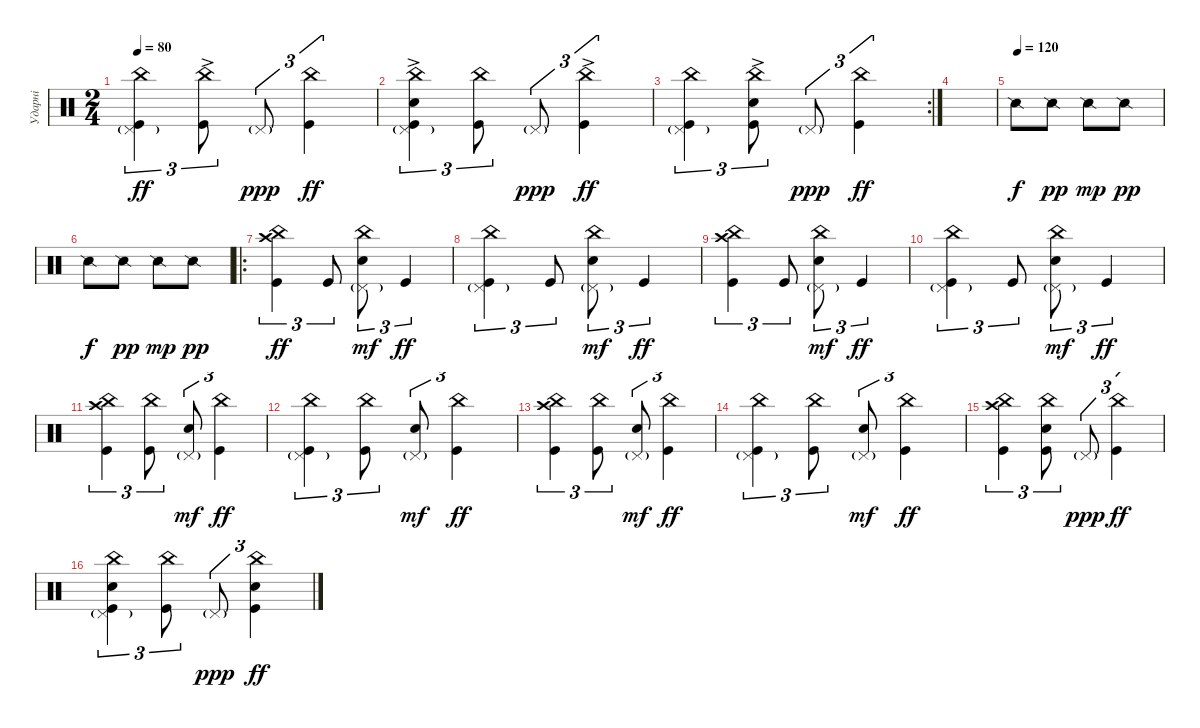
\track ("Ударні" "Ударні") {instrument percussion}
\staff {score}
\articulation defaults
\ts (2 4)
\tempo 80
\clef neutral
\ks c
("China (hit)" "Pedal Hi-Hat (hit)"{g} "Kick (hit)").4{tu (3 2) dy ff} ("China (hit)"{ac} "Kick (hit)").8{tu (3 2)} "Pedal Hi-Hat (hit)"{g}.8{tu (3 2) dy ppp} ("China (hit)" "Kick (hit)").4{tu (3 2) dy ff} |
("China (hit)"{ac} "Pedal Hi-Hat (hit)"{g} "Snare (hit) 2" "Kick (hit)").4{tu (3 2)} ("China (hit)" "Kick (hit)").8{tu (3 2)} "Pedal Hi-Hat (hit)"{g}.8{tu (3 2) dy ppp} ("China (hit)"{ac} "Kick (hit)").4{tu (3 2) dy ff} |
\rc 2
("China (hit)" "Pedal Hi-Hat (hit)"{g} "Kick (hit)").4{tu (3 2)} ("China (hit)"{ac} "Snare (hit) 2" "Kick (hit)").8{tu (3 2)} "Pedal Hi-Hat (hit)"{g}.8{tu (3 2) dy ppp} ("China (hit)" "Kick (hit)").4{tu (3 2) dy ff} |
|
\tempo (120)
"Snare (side stick) 2".8{dy f} "Snare (side stick) 2".8{dy pp} "Snare (side stick) 2".8{dy mp} "Snare (side stick) 2".8{dy pp} |
"Snare (side stick) 2".8{dy f} "Snare (side stick) 2".8{dy pp} "Snare (side stick) 2".8{dy mp} "Snare (side stick) 2".8{dy pp} |
\ro
("China (hit)" "Crash high (hit)" "Kick (hit)").4{tu (3 2) dy ff} "Kick (hit)".8{tu (3 2)} ("China (hit)" "Pedal Hi-Hat (hit)"{g} "Snare (hit) 2").8{tu (3 2) dy mf} "Kick (hit)".4{tu (3 2) dy ff} |
("China (hit)" "Pedal Hi-Hat (hit)"{g} "Kick (hit)").4{tu (3 2)} "Kick (hit)".8{tu (3 2)} ("China (hit)" "Pedal Hi-Hat (hit)"{g} "Snare (hit) 2").8{tu (3 2) dy mf} "Kick (hit)".4{tu (3 2) dy ff} |
("China (hit)" "Crash high (hit)" "Kick (hit)").4{tu (3 2)} "Kick (hit)".8{tu (3 2)} ("China (hit)" "Pedal Hi-Hat (hit)"{g} "Snare (hit) 2").8{tu (3 2) dy mf} "Kick (hit)".4{tu (3 2) dy ff} |
("China (hit)" "Pedal Hi-Hat (hit)"{g} "Kick (hit)").4{tu (3 2)} "Kick (hit)".8{tu (3 2)} ("China (hit)" "Pedal Hi-Hat (hit)"{g} "Snare (hit) 2").8{tu (3 2) dy mf} "Kick (hit)".4{tu (3 2) dy ff} |
("China (hit)" "Crash high (hit)" "Kick (hit)").4{tu (3 2)} ("China (hit)" "Kick (hit)").8{tu (3 2)} ("Pedal Hi-Hat (hit)"{g} "Snare (hit) 2").8{tu (3 2) dy mf} ("China (hit)" "Kick (hit)").4{tu (3 2) dy ff} |
("China (hit)" "Pedal Hi-Hat (hit)"{g} "Kick (hit)").4{tu (3 2)} ("China (hit)" "Kick (hit)").8{tu (3 2)} ("Pedal Hi-Hat (hit)"{g} "Snare (hit) 2").8{tu (3 2) dy mf} ("China (hit)" "Kick (hit)").4{tu (3 2) dy ff} |
("China (hit)" "Crash high (hit)" "Kick (hit)").4{tu (3 2)} ("China (hit)" "Kick (hit)").8{tu (3 2)} ("Pedal Hi-Hat (hit)"{g} "Snare (hit) 2").8{tu (3 2) dy mf} ("China (hit)" "Kick (hit)").4{tu (3 2) dy ff} |
("China (hit)" "Pedal Hi-Hat (hit)"{g} "Kick (hit)").4{tu (3 2)} ("China (hit)" "Kick (hit)").8{tu (3 2)} ("Pedal Hi-Hat (hit)"{g} "Snare (hit) 2").8{tu (3 2) dy mf} ("China (hit)" "Kick (hit)").4{tu (3 2) dy ff} |
("China (hit)" "Crash high (hit)" "Kick (hit)").4{tu (3 2)} ("China (hit)" "Snare (hit) 2" "Kick (hit)").8{tu (3 2)} "Pedal Hi-Hat (hit)"{g}.8{tu (3 2) dy ppp} ("China (hit)" "Kick (hit)").4{tu (3 2) dy ff} |
("China (hit)" "Pedal Hi-Hat (hit)"{g} "Snare (hit) 2" "Kick (hit)").4{tu (3 2)} ("China (hit)" "Kick (hit)").8{tu (3 2)} "Pedal Hi-Hat (hit)"{g}.8{tu (3 2) dy ppp} ("China (hit)" "Snare (hit) 2" "Kick (hit)").4{tu (3 2) dy ff}
